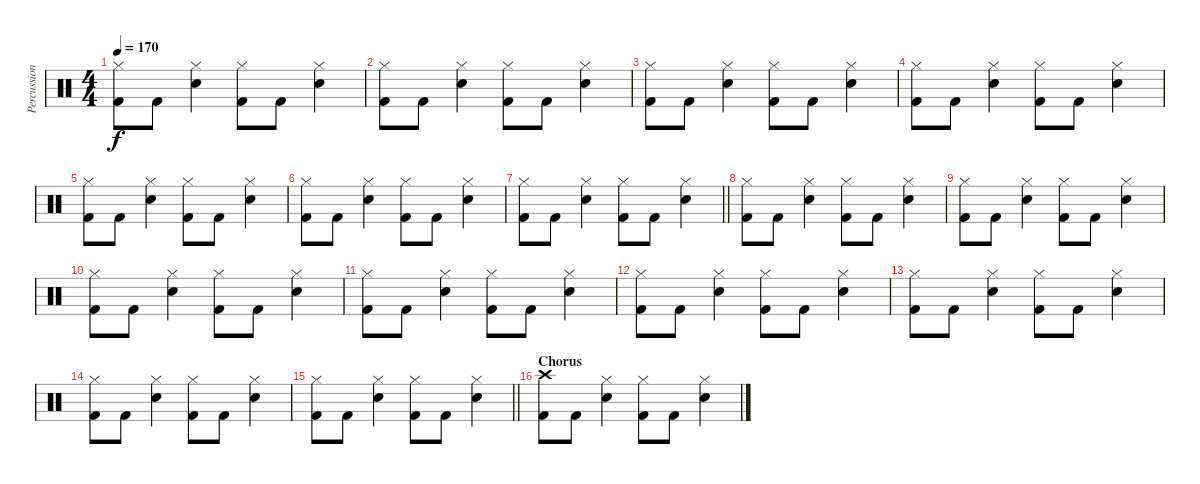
\track ("Percussion" "Percussion") {instrument percussion}
\staff {score}
\articulation defaults
\ts (4 4)
\tempo 170
\clef neutral
\ks c
("Hi-Hat (closed)" "Kick (hit) 2").8{dy f} "Kick (hit) 2".8 ("Hi-Hat (closed)" "Electric Snare (hit)").4 ("Hi-Hat (closed)" "Kick (hit) 2").8 "Kick (hit) 2".8 ("Hi-Hat (closed)" "Electric Snare (hit)").4 |
("Hi-Hat (closed)" "Kick (hit) 2").8 "Kick (hit) 2".8 ("Hi-Hat (closed)" "Electric Snare (hit)").4 ("Hi-Hat (closed)" "Kick (hit) 2").8 "Kick (hit) 2".8 ("Hi-Hat (closed)" "Electric Snare (hit)").4 |
("Hi-Hat (closed)" "Kick (hit) 2").8 "Kick (hit) 2".8 ("Hi-Hat (closed)" "Electric Snare (hit)").4 ("Hi-Hat (closed)" "Kick (hit) 2").8 "Kick (hit) 2".8 ("Hi-Hat (closed)" "Electric Snare (hit)").4 |
("Hi-Hat (closed)" "Kick (hit) 2").8 "Kick (hit) 2".8 ("Hi-Hat (closed)" "Electric Snare (hit)").4 ("Hi-Hat (closed)" "Kick (hit) 2").8 "Kick (hit) 2".8 ("Hi-Hat (closed)" "Electric Snare (hit)").4 |
("Hi-Hat (closed)" "Kick (hit) 2").8 "Kick (hit) 2".8 ("Hi-Hat (closed)" "Electric Snare (hit)").4 ("Hi-Hat (closed)" "Kick (hit) 2").8 "Kick (hit) 2".8 ("Hi-Hat (closed)" "Electric Snare (hit)").4 |
("Hi-Hat (closed)" "Kick (hit) 2").8 "Kick (hit) 2".8 ("Hi-Hat (closed)" "Electric Snare (hit)").4 ("Hi-Hat (closed)" "Kick (hit) 2").8 "Kick (hit) 2".8 ("Hi-Hat (closed)" "Electric Snare (hit)").4 |
\barLineRight lightlight
("Hi-Hat (closed)" "Kick (hit) 2").8 "Kick (hit) 2".8 ("Hi-Hat (closed)" "Electric Snare (hit)").4 ("Hi-Hat (closed)" "Kick (hit) 2").8 "Kick (hit) 2".8 ("Hi-Hat (closed)" "Electric Snare (hit)").4 |
("Hi-Hat (closed)" "Kick (hit) 2").8 "Kick (hit) 2".8 ("Hi-Hat (closed)" "Electric Snare (hit)").4 ("Hi-Hat (closed)" "Kick (hit) 2").8 "Kick (hit) 2".8 ("Hi-Hat (closed)" "Electric Snare (hit)").4 |
("Hi-Hat (closed)" "Kick (hit) 2").8 "Kick (hit) 2".8 ("Hi-Hat (closed)" "Electric Snare (hit)").4 ("Hi-Hat (closed)" "Kick (hit) 2").8 "Kick (hit) 2".8 ("Hi-Hat (closed)" "Electric Snare (hit)").4 |
("Hi-Hat (closed)" "Kick (hit) 2").8 "Kick (hit) 2".8 ("Hi-Hat (closed)" "Electric Snare (hit)").4 ("Hi-Hat (closed)" "Kick (hit) 2").8 "Kick (hit) 2".8 ("Hi-Hat (closed)" "Electric Snare (hit)").4 |
("Hi-Hat (closed)" "Kick (hit) 2").8 "Kick (hit) 2".8 ("Hi-Hat (closed)" "Electric Snare (hit)").4 ("Hi-Hat (closed)" "Kick (hit) 2").8 "Kick (hit) 2".8 ("Hi-Hat (closed)" "Electric Snare (hit)").4 |
("Hi-Hat (closed)" "Kick (hit) 2").8 "Kick (hit) 2".8 ("Hi-Hat (closed)" "Electric Snare (hit)").4 ("Hi-Hat (closed)" "Kick (hit) 2").8 "Kick (hit) 2".8 ("Hi-Hat (closed)" "Electric Snare (hit)").4 |
("Hi-Hat (closed)" "Kick (hit) 2").8 "Kick (hit) 2".8 ("Hi-Hat (closed)" "Electric Snare (hit)").4 ("Hi-Hat (closed)" "Kick (hit) 2").8 "Kick (hit) 2".8 ("Hi-Hat (closed)" "Electric Snare (hit)").4 |
("Hi-Hat (closed)" "Kick (hit) 2").8 "Kick (hit) 2".8 ("Hi-Hat (closed)" "Electric Snare (hit)").4 ("Hi-Hat (closed)" "Kick (hit) 2").8 "Kick (hit) 2".8 ("Hi-Hat (closed)" "Electric Snare (hit)").4 |
\barLineRight lightlight
("Hi-Hat (closed)" "Kick (hit) 2").8 "Kick (hit) 2".8 ("Hi-Hat (closed)" "Electric Snare (hit)").4 ("Hi-Hat (closed)" "Kick (hit) 2").8 "Kick (hit) 2".8 ("Hi-Hat (closed)" "Electric Snare (hit)").4 |
\section ("" "Chorus")
("Crash high (hit)" "Kick (hit) 2").8 "Kick (hit) 2".8 ("Hi-Hat (closed)" "Electric Snare (hit)").4 ("Hi-Hat (closed)" "Kick (hit) 2").8 "Kick (hit) 2".8 ("Hi-Hat (closed)" "Electric Snare (hit)").4
